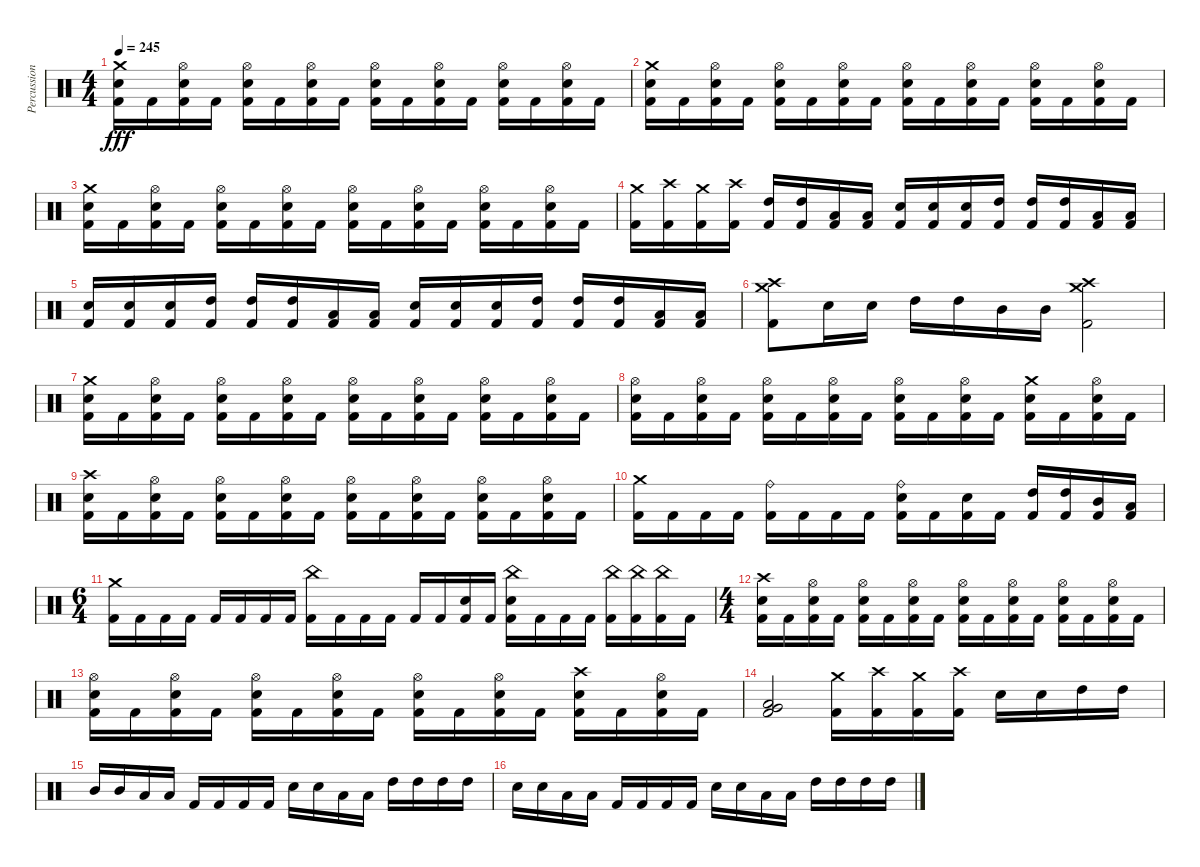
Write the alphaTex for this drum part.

\track ("Percussion" "Percussion") {instrument percussion bank 177}
\staff {score}
\articulation defaults
\ts (4 4)
\tempo 245
\clef neutral
\ks c
("Crash medium (hit)" "Electric Snare (hit)" "Kick (hit) 2").16{dy fff} "Kick (hit) 2".16 ("Hi-Hat (open)" "Electric Snare (hit)" "Kick (hit) 2").16 "Kick (hit) 2".16 ("Hi-Hat (open)" "Electric Snare (hit)" "Kick (hit) 2").16 "Kick (hit) 2".16 ("Hi-Hat (open)" "Electric Snare (hit)" "Kick (hit) 2").16 "Kick (hit) 2".16 ("Hi-Hat (open)" "Electric Snare (hit)" "Kick (hit) 2").16 "Kick (hit) 2".16 ("Hi-Hat (open)" "Electric Snare (hit)" "Kick (hit) 2").16 "Kick (hit) 2".16 ("Hi-Hat (open)" "Electric Snare (hit)" "Kick (hit) 2").16 "Kick (hit) 2".16 ("Hi-Hat (open)" "Electric Snare (hit)" "Kick (hit) 2").16 "Kick (hit) 2".16 |
("Crash medium (hit)" "Electric Snare (hit)" "Kick (hit) 2").16 "Kick (hit) 2".16 ("Hi-Hat (open)" "Electric Snare (hit)" "Kick (hit) 2").16 "Kick (hit) 2".16 ("Hi-Hat (open)" "Electric Snare (hit)" "Kick (hit) 2").16 "Kick (hit) 2".16 ("Hi-Hat (open)" "Electric Snare (hit)" "Kick (hit) 2").16 "Kick (hit) 2".16 ("Hi-Hat (open)" "Electric Snare (hit)" "Kick (hit) 2").16 "Kick (hit) 2".16 ("Hi-Hat (open)" "Electric Snare (hit)" "Kick (hit) 2").16 "Kick (hit) 2".16 ("Hi-Hat (open)" "Electric Snare (hit)" "Kick (hit) 2").16 "Kick (hit) 2".16 ("Hi-Hat (open)" "Electric Snare (hit)" "Kick (hit) 2").16 "Kick (hit) 2".16 |
("Crash medium (hit)" "Electric Snare (hit)" "Kick (hit) 2").16 "Kick (hit) 2".16 ("Hi-Hat (open)" "Electric Snare (hit)" "Kick (hit) 2").16 "Kick (hit) 2".16 ("Hi-Hat (open)" "Electric Snare (hit)" "Kick (hit) 2").16 "Kick (hit) 2".16 ("Hi-Hat (open)" "Electric Snare (hit)" "Kick (hit) 2").16 "Kick (hit) 2".16 ("Hi-Hat (open)" "Electric Snare (hit)" "Kick (hit) 2").16 "Kick (hit) 2".16 ("Hi-Hat (open)" "Electric Snare (hit)" "Kick (hit) 2").16 "Kick (hit) 2".16 ("Hi-Hat (open)" "Electric Snare (hit)" "Kick (hit) 2").16 "Kick (hit) 2".16 ("Hi-Hat (open)" "Electric Snare (hit)" "Kick (hit) 2").16 "Kick (hit) 2".16 |
("Crash medium (hit)" "Kick (hit) 2").16 ("Crash high (hit)" "Kick (hit) 2").16 ("Crash medium (hit)" "Kick (hit) 2").16 ("Crash high (hit)" "Kick (hit) 2").16 ("High Tom (hit)" "Kick (hit) 2").16 ("High Tom (hit)" "Kick (hit) 2").16 ("Low Tom (hit)" "Kick (hit) 2").16 ("Low Tom (hit)" "Kick (hit) 2").16 ("Electric Snare (hit)" "Kick (hit) 2").16 ("Electric Snare (hit)" "Kick (hit) 2").16 ("Electric Snare (hit)" "Kick (hit) 2").16 ("High Tom (hit)" "Kick (hit) 2").16 ("High Tom (hit)" "Kick (hit) 2").16 ("High Tom (hit)" "Kick (hit) 2").16 ("Low Tom (hit)" "Kick (hit) 2").16 ("Low Tom (hit)" "Kick (hit) 2").16 |
("Electric Snare (hit)" "Kick (hit) 2").16 ("Electric Snare (hit)" "Kick (hit) 2").16 ("Electric Snare (hit)" "Kick (hit) 2").16 ("High Tom (hit)" "Kick (hit) 2").16 ("High Tom (hit)" "Kick (hit) 2").16 ("High Tom (hit)" "Kick (hit) 2").16 ("Low Tom (hit)" "Kick (hit) 2").16 ("Low Tom (hit)" "Kick (hit) 2").16 ("Electric Snare (hit)" "Kick (hit) 2").16 ("Electric Snare (hit)" "Kick (hit) 2").16 ("Electric Snare (hit)" "Kick (hit) 2").16 ("High Tom (hit)" "Kick (hit) 2").16 ("High Tom (hit)" "Kick (hit) 2").16 ("High Tom (hit)" "Kick (hit) 2").16 ("Low Tom (hit)" "Kick (hit) 2").16 ("Low Tom (hit)" "Kick (hit) 2").16 |
("Crash medium (hit)" "Crash high (hit)" "Kick (hit) 2").8 "Electric Snare (hit)".16 "Electric Snare (hit)".16 "High Tom (hit)".16 "High Tom (hit)".16 "Mid Tom (hit)".16 "Mid Tom (hit)".16 ("Crash medium (hit)" "Crash high (hit)" "Kick (hit) 2").2 |
("Crash medium (hit)" "Electric Snare (hit)" "Kick (hit) 2").16 "Kick (hit) 2".16 ("Hi-Hat (open)" "Electric Snare (hit)" "Kick (hit) 2").16 "Kick (hit) 2".16 ("Hi-Hat (open)" "Electric Snare (hit)" "Kick (hit) 2").16 "Kick (hit) 2".16 ("Hi-Hat (open)" "Electric Snare (hit)" "Kick (hit) 2").16 "Kick (hit) 2".16 ("Hi-Hat (open)" "Electric Snare (hit)" "Kick (hit) 2").16 "Kick (hit) 2".16 ("Hi-Hat (open)" "Electric Snare (hit)" "Kick (hit) 2").16 "Kick (hit) 2".16 ("Hi-Hat (open)" "Electric Snare (hit)" "Kick (hit) 2").16 "Kick (hit) 2".16 ("Hi-Hat (open)" "Electric Snare (hit)" "Kick (hit) 2").16 "Kick (hit) 2".16 |
("Hi-Hat (open)" "Electric Snare (hit)" "Kick (hit) 2").16 "Kick (hit) 2".16 ("Hi-Hat (open)" "Electric Snare (hit)" "Kick (hit) 2").16 "Kick (hit) 2".16 ("Hi-Hat (open)" "Electric Snare (hit)" "Kick (hit) 2").16 "Kick (hit) 2".16 ("Hi-Hat (open)" "Electric Snare (hit)" "Kick (hit) 2").16 "Kick (hit) 2".16 ("Hi-Hat (open)" "Electric Snare (hit)" "Kick (hit) 2").16 "Kick (hit) 2".16 ("Hi-Hat (open)" "Electric Snare (hit)" "Kick (hit) 2").16 "Kick (hit) 2".16 ("Crash medium (hit)" "Electric Snare (hit)" "Kick (hit) 2").16 "Kick (hit) 2".16 ("Hi-Hat (open)" "Electric Snare (hit)" "Kick (hit) 2").16 "Kick (hit) 2".16 |
("Crash high (hit)" "Electric Snare (hit)" "Kick (hit) 2").16 "Kick (hit) 2".16 ("Hi-Hat (open)" "Electric Snare (hit)" "Kick (hit) 2").16 "Kick (hit) 2".16 ("Hi-Hat (open)" "Electric Snare (hit)" "Kick (hit) 2").16 "Kick (hit) 2".16 ("Hi-Hat (open)" "Electric Snare (hit)" "Kick (hit) 2").16 "Kick (hit) 2".16 ("Hi-Hat (open)" "Electric Snare (hit)" "Kick (hit) 2").16 "Kick (hit) 2".16 ("Hi-Hat (open)" "Electric Snare (hit)" "Kick (hit) 2").16 "Kick (hit) 2".16 ("Hi-Hat (open)" "Electric Snare (hit)" "Kick (hit) 2").16 "Kick (hit) 2".16 ("Hi-Hat (open)" "Electric Snare (hit)" "Kick (hit) 2").16 "Kick (hit) 2".16 |
("Crash medium (hit)" "Kick (hit) 2").16 "Kick (hit) 2".16 "Kick (hit) 2".16 "Kick (hit) 2".16 ("Ride (bell)" "Kick (hit) 2").16 "Kick (hit) 2".16 "Kick (hit) 2".16 "Kick (hit) 2".16 ("Ride (bell)" "Electric Snare (hit)" "Kick (hit) 2").16 "Kick (hit) 2".16 ("Electric Snare (hit)" "Kick (hit) 2").16 "Kick (hit) 2".16 ("High Tom (hit)" "Kick (hit) 2").16 ("High Tom (hit)" "Kick (hit) 2").16 ("Mid Tom (hit)" "Kick (hit) 2").16 ("Low Tom (hit)" "Kick (hit) 2").16 |
\ts (6 4)
("Crash medium (hit)" "Kick (hit) 2").16 "Kick (hit) 2".16 "Kick (hit) 2".16 "Kick (hit) 2".16 "Kick (hit) 2".16 "Kick (hit) 2".16 "Kick (hit) 2".16 "Kick (hit) 2".16 ("China (hit)" "Kick (hit) 2").16 "Kick (hit) 2".16 "Kick (hit) 2".16 "Kick (hit) 2".16 "Kick (hit) 2".16 "Kick (hit) 2".16 ("Electric Snare (hit)" "Kick (hit) 2").16 "Kick (hit) 2".16 ("China (hit)" "Electric Snare (hit)" "Kick (hit) 2").16 "Kick (hit) 2".16 "Kick (hit) 2".16 "Kick (hit) 2".16 ("China (hit)" "Kick (hit) 2").16 ("China (hit)" "Kick (hit) 2").16 ("China (hit)" "Kick (hit) 2").16 "Kick (hit) 2".16 |
\ts (4 4)
("Crash high (hit)" "Electric Snare (hit)" "Kick (hit) 2").16 "Kick (hit) 2".16 ("Hi-Hat (open)" "Electric Snare (hit)" "Kick (hit) 2").16 "Kick (hit) 2".16 ("Hi-Hat (open)" "Electric Snare (hit)" "Kick (hit) 2").16 "Kick (hit) 2".16 ("Hi-Hat (open)" "Electric Snare (hit)" "Kick (hit) 2").16 "Kick (hit) 2".16 ("Hi-Hat (open)" "Electric Snare (hit)" "Kick (hit) 2").16 "Kick (hit) 2".16 ("Hi-Hat (open)" "Electric Snare (hit)" "Kick (hit) 2").16 "Kick (hit) 2".16 ("Hi-Hat (open)" "Electric Snare (hit)" "Kick (hit) 2").16 "Kick (hit) 2".16 ("Hi-Hat (open)" "Electric Snare (hit)" "Kick (hit) 2").16 "Kick (hit) 2".16 |
("Hi-Hat (open)" "Electric Snare (hit)" "Kick (hit) 2").16 "Kick (hit) 2".16 ("Hi-Hat (open)" "Electric Snare (hit)" "Kick (hit) 2").16 "Kick (hit) 2".16 ("Hi-Hat (open)" "Electric Snare (hit)" "Kick (hit) 2").16 "Kick (hit) 2".16 ("Hi-Hat (open)" "Electric Snare (hit)" "Kick (hit) 2").16 "Kick (hit) 2".16 ("Hi-Hat (open)" "Electric Snare (hit)" "Kick (hit) 2").16 "Kick (hit) 2".16 ("Hi-Hat (open)" "Electric Snare (hit)" "Kick (hit) 2").16 "Kick (hit) 2".16 ("Crash high (hit)" "Electric Snare (hit)" "Kick (hit) 2").16 "Kick (hit) 2".16 ("Hi-Hat (open)" "Electric Snare (hit)" "Kick (hit) 2").16 "Kick (hit) 2".16 |
("Low Tom (hit)" "Very Low Tom (hit)" "Kick (hit) 2").2 ("Crash medium (hit)" "Kick (hit) 2").16 ("Crash high (hit)" "Kick (hit) 2").16 ("Crash medium (hit)" "Kick (hit) 2").16 ("Crash high (hit)" "Kick (hit) 2").16 "Electric Snare (hit)".16 "Electric Snare (hit)".16 "High Tom (hit)".16 "High Tom (hit)".16 |
"Mid Tom (hit)".16 "Mid Tom (hit)".16 "Low Tom (hit)".16 "Low Tom (hit)".16 "Kick (hit) 2".16 "Kick (hit) 2".16 "Kick (hit) 2".16 "Kick (hit) 2".16 "Electric Snare (hit)".16 "Electric Snare (hit)".16 "Low Tom (hit)".16 "Low Tom (hit)".16 "High Tom (hit)".16 "High Tom (hit)".16 "High Tom (hit)".16 "High Tom (hit)".16 |
"Electric Snare (hit)".16 "Electric Snare (hit)".16 "Low Tom (hit)".16 "Low Tom (hit)".16 "Kick (hit) 2".16 "Kick (hit) 2".16 "Kick (hit) 2".16 "Kick (hit) 2".16 "Electric Snare (hit)".16 "Electric Snare (hit)".16 "Low Tom (hit)".16 "Low Tom (hit)".16 "High Tom (hit)".16 "High Tom (hit)".16 "High Tom (hit)".16 "High Tom (hit)".16
